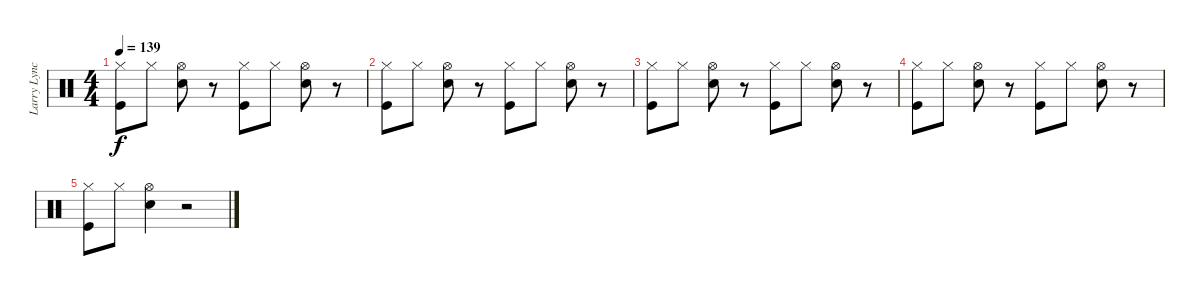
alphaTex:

\track ("Larry Lynch" "Larry Lync") {instrument percussion}
\staff {score}
\articulation defaults
\ts (4 4)
\tempo 139
\clef neutral
\ks c
("Hi-Hat (closed)" "Kick (hit)").8{dy f} "Hi-Hat (closed)".8 ("Hi-Hat (open)" "Electric Snare (hit)").8 r.8 ("Hi-Hat (closed)" "Kick (hit)").8 "Hi-Hat (closed)".8 ("Hi-Hat (open)" "Electric Snare (hit)").8 r.8 |
("Hi-Hat (closed)" "Kick (hit)").8 "Hi-Hat (closed)".8 ("Hi-Hat (open)" "Electric Snare (hit)").8 r.8 ("Hi-Hat (closed)" "Kick (hit)").8 "Hi-Hat (closed)".8 ("Hi-Hat (open)" "Electric Snare (hit)").8 r.8 |
("Hi-Hat (closed)" "Kick (hit)").8 "Hi-Hat (closed)".8 ("Hi-Hat (open)" "Electric Snare (hit)").8 r.8 ("Hi-Hat (closed)" "Kick (hit)").8 "Hi-Hat (closed)".8 ("Hi-Hat (open)" "Electric Snare (hit)").8 r.8 |
("Hi-Hat (closed)" "Kick (hit)").8 "Hi-Hat (closed)".8 ("Hi-Hat (open)" "Electric Snare (hit)").8 r.8 ("Hi-Hat (closed)" "Kick (hit)").8 "Hi-Hat (closed)".8 ("Hi-Hat (open)" "Electric Snare (hit)").8 r.8 |
("Hi-Hat (closed)" "Kick (hit)").8 "Hi-Hat (closed)".8 ("Hi-Hat (open)" "Electric Snare (hit)").4 r.2
